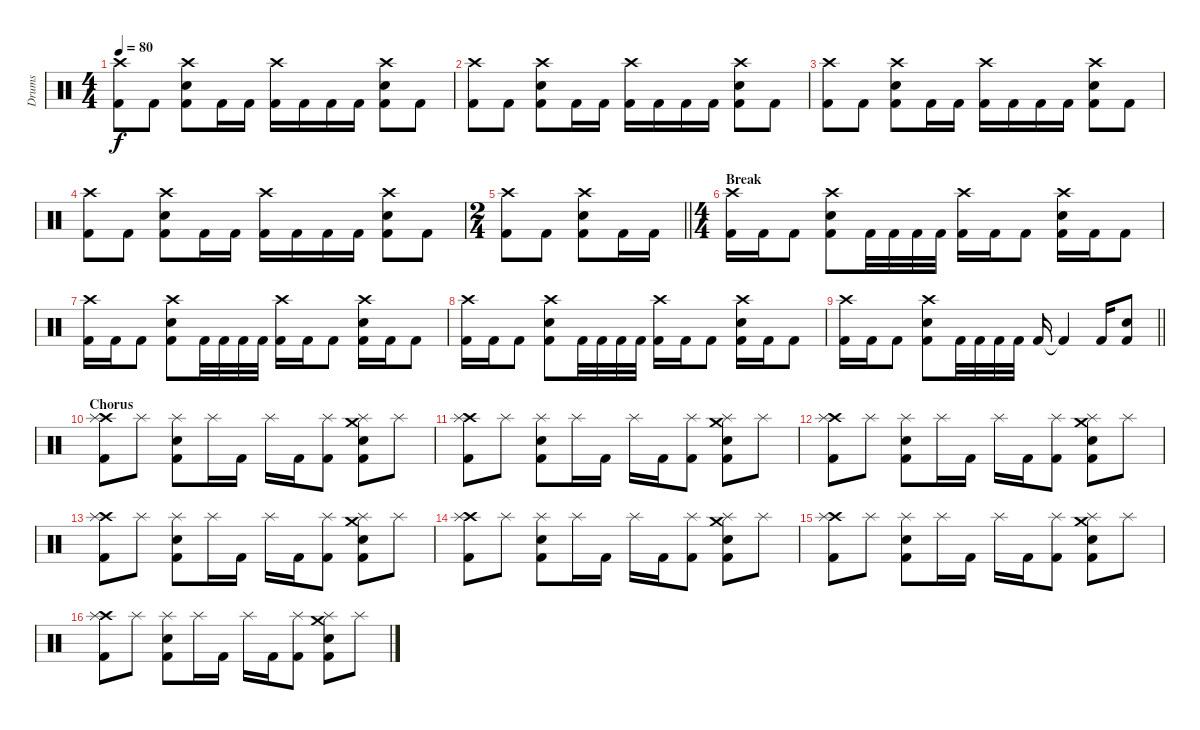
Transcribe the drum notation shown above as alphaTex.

\track ("Drums" "Drums") {instrument percussion}
\staff {score}
\articulation defaults
\ts (4 4)
\tempo 80
\clef neutral
\ks c
("Crash high (hit)" "Kick (hit) 2").8{dy f} "Kick (hit) 2".8 ("Crash high (hit)" "Electric Snare (hit)" "Kick (hit) 2").8 "Kick (hit) 2".16 "Kick (hit) 2".16 ("Crash high (hit)" "Kick (hit) 2").16 "Kick (hit) 2".16 "Kick (hit) 2".16 "Kick (hit) 2".16 ("Crash high (hit)" "Electric Snare (hit)" "Kick (hit) 2").8 "Kick (hit) 2".8 |
("Crash high (hit)" "Kick (hit) 2").8 "Kick (hit) 2".8 ("Crash high (hit)" "Electric Snare (hit)" "Kick (hit) 2").8 "Kick (hit) 2".16 "Kick (hit) 2".16 ("Crash high (hit)" "Kick (hit) 2").16 "Kick (hit) 2".16 "Kick (hit) 2".16 "Kick (hit) 2".16 ("Crash high (hit)" "Electric Snare (hit)" "Kick (hit) 2").8 "Kick (hit) 2".8 |
("Crash high (hit)" "Kick (hit) 2").8 "Kick (hit) 2".8 ("Crash high (hit)" "Electric Snare (hit)" "Kick (hit) 2").8 "Kick (hit) 2".16 "Kick (hit) 2".16 ("Crash high (hit)" "Kick (hit) 2").16 "Kick (hit) 2".16 "Kick (hit) 2".16 "Kick (hit) 2".16 ("Crash high (hit)" "Electric Snare (hit)" "Kick (hit) 2").8 "Kick (hit) 2".8 |
("Crash high (hit)" "Kick (hit) 2").8 "Kick (hit) 2".8 ("Crash high (hit)" "Electric Snare (hit)" "Kick (hit) 2").8 "Kick (hit) 2".16 "Kick (hit) 2".16 ("Crash high (hit)" "Kick (hit) 2").16 "Kick (hit) 2".16 "Kick (hit) 2".16 "Kick (hit) 2".16 ("Crash high (hit)" "Electric Snare (hit)" "Kick (hit) 2").8 "Kick (hit) 2".8 |
\ts (2 4)
\barLineRight lightlight
("Crash high (hit)" "Kick (hit) 2").8 "Kick (hit) 2".8 ("Crash high (hit)" "Electric Snare (hit)" "Kick (hit) 2").8 "Kick (hit) 2".16 "Kick (hit) 2".16 |
\ts (4 4)
\section ("" "Break")
("Crash high (hit)" "Kick (hit) 2").16 "Kick (hit) 2".16 "Kick (hit) 2".8 ("Crash high (hit)" "Electric Snare (hit)" "Kick (hit) 2").8 "Kick (hit) 2".32 "Kick (hit) 2".32 "Kick (hit) 2".32 "Kick (hit) 2".32 ("Crash high (hit)" "Kick (hit) 2").16 "Kick (hit) 2".16 "Kick (hit) 2".8 ("Crash high (hit)" "Electric Snare (hit)" "Kick (hit) 2").16 "Kick (hit) 2".16 "Kick (hit) 2".8 |
("Crash high (hit)" "Kick (hit) 2").16 "Kick (hit) 2".16 "Kick (hit) 2".8 ("Crash high (hit)" "Electric Snare (hit)" "Kick (hit) 2").8 "Kick (hit) 2".32 "Kick (hit) 2".32 "Kick (hit) 2".32 "Kick (hit) 2".32 ("Crash high (hit)" "Kick (hit) 2").16 "Kick (hit) 2".16 "Kick (hit) 2".8 ("Crash high (hit)" "Electric Snare (hit)" "Kick (hit) 2").16 "Kick (hit) 2".16 "Kick (hit) 2".8 |
("Crash high (hit)" "Kick (hit) 2").16 "Kick (hit) 2".16 "Kick (hit) 2".8 ("Crash high (hit)" "Electric Snare (hit)" "Kick (hit) 2").8 "Kick (hit) 2".32 "Kick (hit) 2".32 "Kick (hit) 2".32 "Kick (hit) 2".32 ("Crash high (hit)" "Kick (hit) 2").16 "Kick (hit) 2".16 "Kick (hit) 2".8 ("Crash high (hit)" "Electric Snare (hit)" "Kick (hit) 2").16 "Kick (hit) 2".16 "Kick (hit) 2".8 |
\barLineRight lightlight
("Crash high (hit)" "Kick (hit) 2").16 "Kick (hit) 2".16 "Kick (hit) 2".8 ("Crash high (hit)" "Electric Snare (hit)" "Kick (hit) 2").8 "Kick (hit) 2".32 "Kick (hit) 2".32 "Kick (hit) 2".32 "Kick (hit) 2".32 "Kick (hit) 2".16 "Kick (hit) 2"{t}.4 "Kick (hit) 2".16 ("Electric Snare (hit)" "Kick (hit) 2").8 |
\section ("" "Chorus")
("Crash high (hit)" "Splash (hit)" "Kick (hit) 2").8 "Splash (hit)".8 ("Splash (hit)" "Electric Snare (hit)" "Kick (hit) 2").8 "Splash (hit)".16 "Kick (hit) 2".16 "Splash (hit)".16 "Kick (hit) 2".16 ("Splash (hit)" "Kick (hit) 2").8 ("Crash medium (hit)" "Splash (hit)" "Electric Snare (hit)" "Kick (hit) 2").8 "Splash (hit)".8 |
("Crash high (hit)" "Splash (hit)" "Kick (hit) 2").8 "Splash (hit)".8 ("Splash (hit)" "Electric Snare (hit)" "Kick (hit) 2").8 "Splash (hit)".16 "Kick (hit) 2".16 "Splash (hit)".16 "Kick (hit) 2".16 ("Splash (hit)" "Kick (hit) 2").8 ("Crash medium (hit)" "Splash (hit)" "Electric Snare (hit)" "Kick (hit) 2").8 "Splash (hit)".8 |
("Crash high (hit)" "Splash (hit)" "Kick (hit) 2").8 "Splash (hit)".8 ("Splash (hit)" "Electric Snare (hit)" "Kick (hit) 2").8 "Splash (hit)".16 "Kick (hit) 2".16 "Splash (hit)".16 "Kick (hit) 2".16 ("Splash (hit)" "Kick (hit) 2").8 ("Crash medium (hit)" "Splash (hit)" "Electric Snare (hit)" "Kick (hit) 2").8 "Splash (hit)".8 |
("Crash high (hit)" "Splash (hit)" "Kick (hit) 2").8 "Splash (hit)".8 ("Splash (hit)" "Electric Snare (hit)" "Kick (hit) 2").8 "Splash (hit)".16 "Kick (hit) 2".16 "Splash (hit)".16 "Kick (hit) 2".16 ("Splash (hit)" "Kick (hit) 2").8 ("Crash medium (hit)" "Splash (hit)" "Electric Snare (hit)" "Kick (hit) 2").8 "Splash (hit)".8 |
("Crash high (hit)" "Splash (hit)" "Kick (hit) 2").8 "Splash (hit)".8 ("Splash (hit)" "Electric Snare (hit)" "Kick (hit) 2").8 "Splash (hit)".16 "Kick (hit) 2".16 "Splash (hit)".16 "Kick (hit) 2".16 ("Splash (hit)" "Kick (hit) 2").8 ("Crash medium (hit)" "Splash (hit)" "Electric Snare (hit)" "Kick (hit) 2").8 "Splash (hit)".8 |
("Crash high (hit)" "Splash (hit)" "Kick (hit) 2").8 "Splash (hit)".8 ("Splash (hit)" "Electric Snare (hit)" "Kick (hit) 2").8 "Splash (hit)".16 "Kick (hit) 2".16 "Splash (hit)".16 "Kick (hit) 2".16 ("Splash (hit)" "Kick (hit) 2").8 ("Crash medium (hit)" "Splash (hit)" "Electric Snare (hit)" "Kick (hit) 2").8 "Splash (hit)".8 |
("Crash high (hit)" "Splash (hit)" "Kick (hit) 2").8 "Splash (hit)".8 ("Splash (hit)" "Electric Snare (hit)" "Kick (hit) 2").8 "Splash (hit)".16 "Kick (hit) 2".16 "Splash (hit)".16 "Kick (hit) 2".16 ("Splash (hit)" "Kick (hit) 2").8 ("Crash medium (hit)" "Splash (hit)" "Electric Snare (hit)" "Kick (hit) 2").8 "Splash (hit)".8
